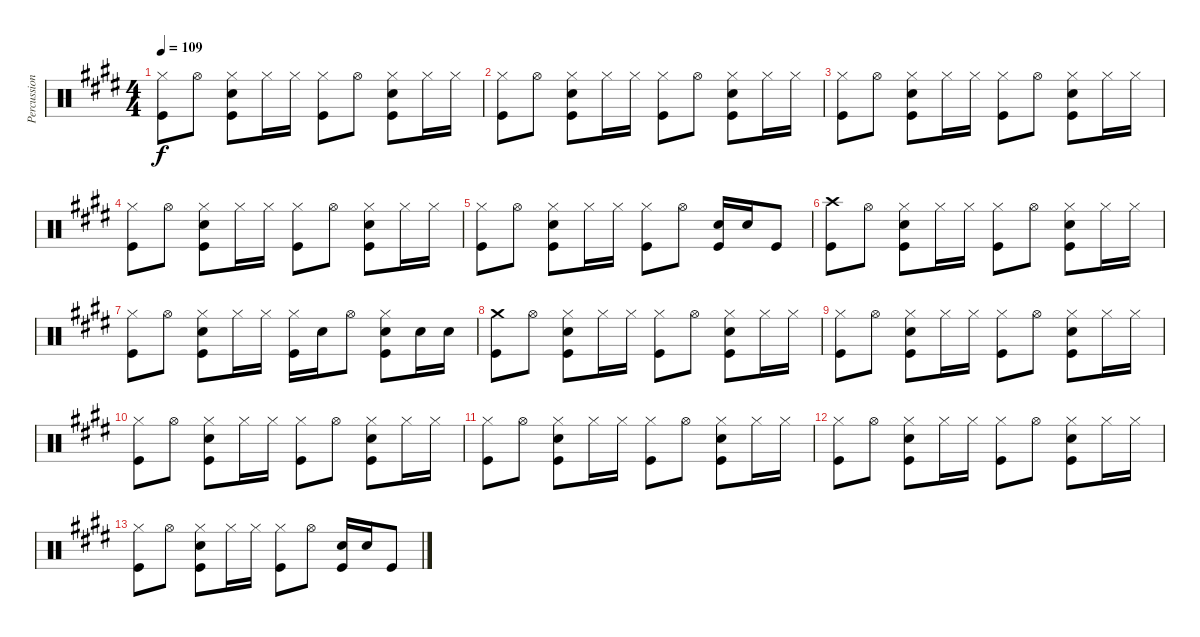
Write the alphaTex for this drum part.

\track ("Percussion" "Percussion") {instrument percussion}
\staff {score}
\articulation defaults
\ts (4 4)
\tempo 109
\clef neutral
\ks e
("Hi-Hat (closed)" "Kick (hit)").8{dy f} "Hi-Hat (open)".8 ("Hi-Hat (closed)" "Snare (hit) 2" "Kick (hit)").8 "Hi-Hat (closed)".16 "Hi-Hat (closed)".16 ("Hi-Hat (closed)" "Kick (hit)").8 "Hi-Hat (open)".8 ("Hi-Hat (closed)" "Snare (hit) 2" "Kick (hit)").8 "Hi-Hat (closed)".16 "Hi-Hat (closed)".16 |
("Hi-Hat (closed)" "Kick (hit)").8 "Hi-Hat (open)".8 ("Hi-Hat (closed)" "Snare (hit) 2" "Kick (hit)").8 "Hi-Hat (closed)".16 "Hi-Hat (closed)".16 ("Hi-Hat (closed)" "Kick (hit)").8 "Hi-Hat (open)".8 ("Hi-Hat (closed)" "Snare (hit) 2" "Kick (hit)").8 "Hi-Hat (closed)".16 "Hi-Hat (closed)".16 |
("Hi-Hat (closed)" "Kick (hit)").8 "Hi-Hat (open)".8 ("Hi-Hat (closed)" "Snare (hit) 2" "Kick (hit)").8 "Hi-Hat (closed)".16 "Hi-Hat (closed)".16 ("Hi-Hat (closed)" "Kick (hit)").8 "Hi-Hat (open)".8 ("Hi-Hat (closed)" "Snare (hit) 2" "Kick (hit)").8 "Hi-Hat (closed)".16 "Hi-Hat (closed)".16 |
("Hi-Hat (closed)" "Kick (hit)").8 "Hi-Hat (open)".8 ("Hi-Hat (closed)" "Snare (hit) 2" "Kick (hit)").8 "Hi-Hat (closed)".16 "Hi-Hat (closed)".16 ("Hi-Hat (closed)" "Kick (hit)").8 "Hi-Hat (open)".8 ("Hi-Hat (closed)" "Snare (hit) 2" "Kick (hit)").8 "Hi-Hat (closed)".16 "Hi-Hat (closed)".16 |
("Hi-Hat (closed)" "Kick (hit)").8 "Hi-Hat (open)".8 ("Hi-Hat (closed)" "Snare (hit) 2" "Kick (hit)").8 "Hi-Hat (closed)".16 "Hi-Hat (closed)".16 ("Hi-Hat (closed)" "Kick (hit)").8 "Hi-Hat (open)".8 ("Snare (hit) 2" "Kick (hit)").16 "Snare (hit) 2".16 "Kick (hit)".8 |
("Crash high (hit)" "Kick (hit)").8 "Hi-Hat (open)".8 ("Hi-Hat (closed)" "Snare (hit) 2" "Kick (hit)").8 "Hi-Hat (closed)".16 "Hi-Hat (closed)".16 ("Hi-Hat (closed)" "Kick (hit)").8 "Hi-Hat (open)".8 ("Hi-Hat (closed)" "Snare (hit) 2" "Kick (hit)").8 "Hi-Hat (closed)".16 "Hi-Hat (closed)".16 |
("Hi-Hat (closed)" "Kick (hit)").8 "Hi-Hat (open)".8 ("Hi-Hat (closed)" "Snare (hit) 2" "Kick (hit)").8 "Hi-Hat (closed)".16 "Hi-Hat (closed)".16 ("Hi-Hat (closed)" "Kick (hit)").16 "Snare (hit) 2".16 "Hi-Hat (open)".8 ("Hi-Hat (closed)" "Snare (hit) 2" "Kick (hit)").8 "Snare (hit) 2".16 "Snare (hit) 2".16 |
("Crash medium (hit)" "Kick (hit)").8 "Hi-Hat (open)".8 ("Hi-Hat (closed)" "Snare (hit) 2" "Kick (hit)").8 "Hi-Hat (closed)".16 "Hi-Hat (closed)".16 ("Hi-Hat (closed)" "Kick (hit)").8 "Hi-Hat (open)".8 ("Hi-Hat (closed)" "Snare (hit) 2" "Kick (hit)").8 "Hi-Hat (closed)".16 "Hi-Hat (closed)".16 |
("Hi-Hat (closed)" "Kick (hit)").8 "Hi-Hat (open)".8 ("Hi-Hat (closed)" "Snare (hit) 2" "Kick (hit)").8 "Hi-Hat (closed)".16 "Hi-Hat (closed)".16 ("Hi-Hat (closed)" "Kick (hit)").8 "Hi-Hat (open)".8 ("Hi-Hat (closed)" "Snare (hit) 2" "Kick (hit)").8 "Hi-Hat (closed)".16 "Hi-Hat (closed)".16 |
("Hi-Hat (closed)" "Kick (hit)").8 "Hi-Hat (open)".8 ("Hi-Hat (closed)" "Snare (hit) 2" "Kick (hit)").8 "Hi-Hat (closed)".16 "Hi-Hat (closed)".16 ("Hi-Hat (closed)" "Kick (hit)").8 "Hi-Hat (open)".8 ("Hi-Hat (closed)" "Snare (hit) 2" "Kick (hit)").8 "Hi-Hat (closed)".16 "Hi-Hat (closed)".16 |
("Hi-Hat (closed)" "Kick (hit)").8 "Hi-Hat (open)".8 ("Hi-Hat (closed)" "Snare (hit) 2" "Kick (hit)").8 "Hi-Hat (closed)".16 "Hi-Hat (closed)".16 ("Hi-Hat (closed)" "Kick (hit)").8 "Hi-Hat (open)".8 ("Hi-Hat (closed)" "Snare (hit) 2" "Kick (hit)").8 "Hi-Hat (closed)".16 "Hi-Hat (closed)".16 |
("Hi-Hat (closed)" "Kick (hit)").8 "Hi-Hat (open)".8 ("Hi-Hat (closed)" "Snare (hit) 2" "Kick (hit)").8 "Hi-Hat (closed)".16 "Hi-Hat (closed)".16 ("Hi-Hat (closed)" "Kick (hit)").8 "Hi-Hat (open)".8 ("Hi-Hat (closed)" "Snare (hit) 2" "Kick (hit)").8 "Hi-Hat (closed)".16 "Hi-Hat (closed)".16 |
("Hi-Hat (closed)" "Kick (hit)").8 "Hi-Hat (open)".8 ("Hi-Hat (closed)" "Snare (hit) 2" "Kick (hit)").8 "Hi-Hat (closed)".16 "Hi-Hat (closed)".16 ("Hi-Hat (closed)" "Kick (hit)").8 "Hi-Hat (open)".8 ("Snare (hit) 2" "Kick (hit)").16 "Snare (hit) 2".16 "Kick (hit)".8
